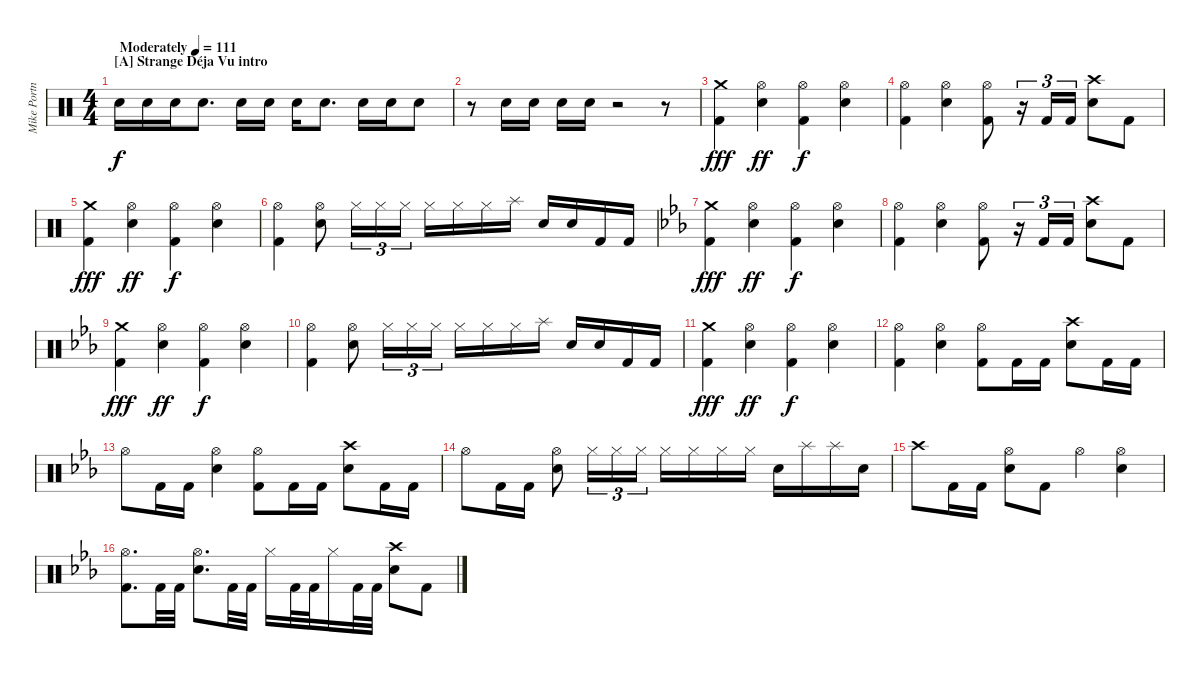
\track ("Mike Portnoy - Drums" "Mike Portn") {instrument percussion}
\staff {score}
\articulation defaults
\ts (4 4)
\section ("" "[A] Strange Déja Vu intro")
\tempo (111 "Moderately")
\clef neutral
\ks c "Electric Snare (hit)".16{dy f} "Electric Snare (hit)".16 "Electric Snare (hit)".16 "Electric Snare (hit)".8{d} "Electric Snare (hit)".16 "Electric Snare (hit)".16 "Electric Snare (hit)".16 "Electric Snare (hit)".8{d} "Electric Snare (hit)".16 "Electric Snare (hit)".16 "Electric Snare (hit)".8
|
r.8 "Electric Snare (hit)".16 "Electric Snare (hit)".16 "Electric Snare (hit)".16 "Electric Snare (hit)".16 r.2 r.8 |
("Crash medium (hit)" "Kick (hit) 2").4{dy fff} ("Hi-Hat (open)" "Electric Snare (hit)").4{dy ff} ("Hi-Hat (open)" "Kick (hit) 2").4{dy f} ("Hi-Hat (open)" "Electric Snare (hit)").4 |
("Hi-Hat (open)" "Kick (hit) 2").4 ("Hi-Hat (open)" "Electric Snare (hit)").4 ("Hi-Hat (open)" "Kick (hit) 2").8 r.16{tu (3 2)} "Kick (hit) 2".16{tu (3 2)} "Kick (hit) 2".16{tu (3 2)} ("Crash high (hit)" "Electric Snare (hit)").8 "Kick (hit) 2".8 |
("Crash medium (hit)" "Kick (hit) 2").4{dy fff} ("Hi-Hat (open)" "Electric Snare (hit)").4{dy ff} ("Hi-Hat (open)" "Kick (hit) 2").4{dy f} ("Hi-Hat (open)" "Electric Snare (hit)").4 |
("Hi-Hat (open)" "Kick (hit) 2").4 ("Hi-Hat (open)" "Electric Snare (hit)").8 "Hi-Hat (closed)".16{tu (3 2)} "Hi-Hat (closed)".16{tu (3 2)} "Hi-Hat (closed)".16{tu (3 2)} "Hi-Hat (closed)".16 "Hi-Hat (closed)".16 "Hi-Hat (closed)".16 "Splash (hit)".16 "Electric Snare (hit)".16 "Electric Snare (hit)".16 "Kick (hit) 2".16 "Kick (hit) 2".16 |
\ks eb
("Crash medium (hit)" "Kick (hit) 2").4{dy fff} ("Hi-Hat (open)" "Electric Snare (hit)").4{dy ff} ("Hi-Hat (open)" "Kick (hit) 2").4{dy f} ("Hi-Hat (open)" "Electric Snare (hit)").4 |
("Hi-Hat (open)" "Kick (hit) 2").4 ("Hi-Hat (open)" "Electric Snare (hit)").4 ("Hi-Hat (open)" "Kick (hit) 2").8 r.16{tu (3 2)} "Kick (hit) 2".16{tu (3 2)} "Kick (hit) 2".16{tu (3 2)} ("Crash high (hit)" "Electric Snare (hit)").8 "Kick (hit) 2".8 |
("Crash medium (hit)" "Kick (hit) 2").4{dy fff} ("Hi-Hat (open)" "Electric Snare (hit)").4{dy ff} ("Hi-Hat (open)" "Kick (hit) 2").4{dy f} ("Hi-Hat (open)" "Electric Snare (hit)").4 |
("Hi-Hat (open)" "Kick (hit) 2").4 ("Hi-Hat (open)" "Electric Snare (hit)").8 "Hi-Hat (closed)".16{tu (3 2)} "Hi-Hat (closed)".16{tu (3 2)} "Hi-Hat (closed)".16{tu (3 2)} "Hi-Hat (closed)".16 "Hi-Hat (closed)".16 "Hi-Hat (closed)".16 "Splash (hit)".16 "Electric Snare (hit)".16 "Electric Snare (hit)".16 "Kick (hit) 2".16 "Kick (hit) 2".16 |
("Crash medium (hit)" "Kick (hit) 2").4{dy fff} ("Hi-Hat (open)" "Electric Snare (hit)").4{dy ff} ("Hi-Hat (open)" "Kick (hit) 2").4{dy f} ("Hi-Hat (open)" "Electric Snare (hit)").4 |
("Hi-Hat (open)" "Kick (hit) 2").4 ("Hi-Hat (open)" "Electric Snare (hit)").4 ("Hi-Hat (open)" "Kick (hit) 2").8 "Kick (hit) 2".16 "Kick (hit) 2".16 ("Crash high (hit)" "Electric Snare (hit)").8 "Kick (hit) 2".16 "Kick (hit) 2".16 |
"Hi-Hat (open)".8 "Kick (hit) 2".16 "Kick (hit) 2".16 ("Hi-Hat (open)" "Electric Snare (hit)").4 ("Hi-Hat (open)" "Kick (hit) 2").8 "Kick (hit) 2".16 "Kick (hit) 2".16 ("Crash high (hit)" "Electric Snare (hit)").8 "Kick (hit) 2".16 "Kick (hit) 2".16 |
"Hi-Hat (open)".8 "Kick (hit) 2".16 "Kick (hit) 2".16 ("Hi-Hat (open)" "Electric Snare (hit)").8 "Hi-Hat (closed)".16{tu (3 2)} "Hi-Hat (closed)".16{tu (3 2)} "Hi-Hat (closed)".16{tu (3 2)} "Hi-Hat (closed)".16 "Hi-Hat (closed)".16 "Hi-Hat (closed)".16 "Hi-Hat (closed)".16 "Electric Snare (hit)".16 "Splash (hit)".16 "Splash (hit)".16 "Electric Snare (hit)".16 |
"Crash high (hit)".8 "Kick (hit) 2".16 "Kick (hit) 2".16 ("Electric Snare (hit)" "Hi-Hat (open)").8 "Kick (hit) 2".8 "Hi-Hat (open)".4 ("Electric Snare (hit)" "Hi-Hat (open)").4 |
("Kick (hit) 2" "Hi-Hat (open)").8{d} "Kick (hit) 2".32 "Kick (hit) 2".32 ("Electric Snare (hit)" "Hi-Hat (open)").8{d} "Kick (hit) 2".32 "Kick (hit) 2".32 "Hi-Hat (closed)".16 "Kick (hit) 2".32 "Kick (hit) 2".32 "Hi-Hat (closed)".16 "Kick (hit) 2".32 "Kick (hit) 2".32 ("Crash high (hit)" "Electric Snare (hit)").8 "Kick (hit) 2".8
